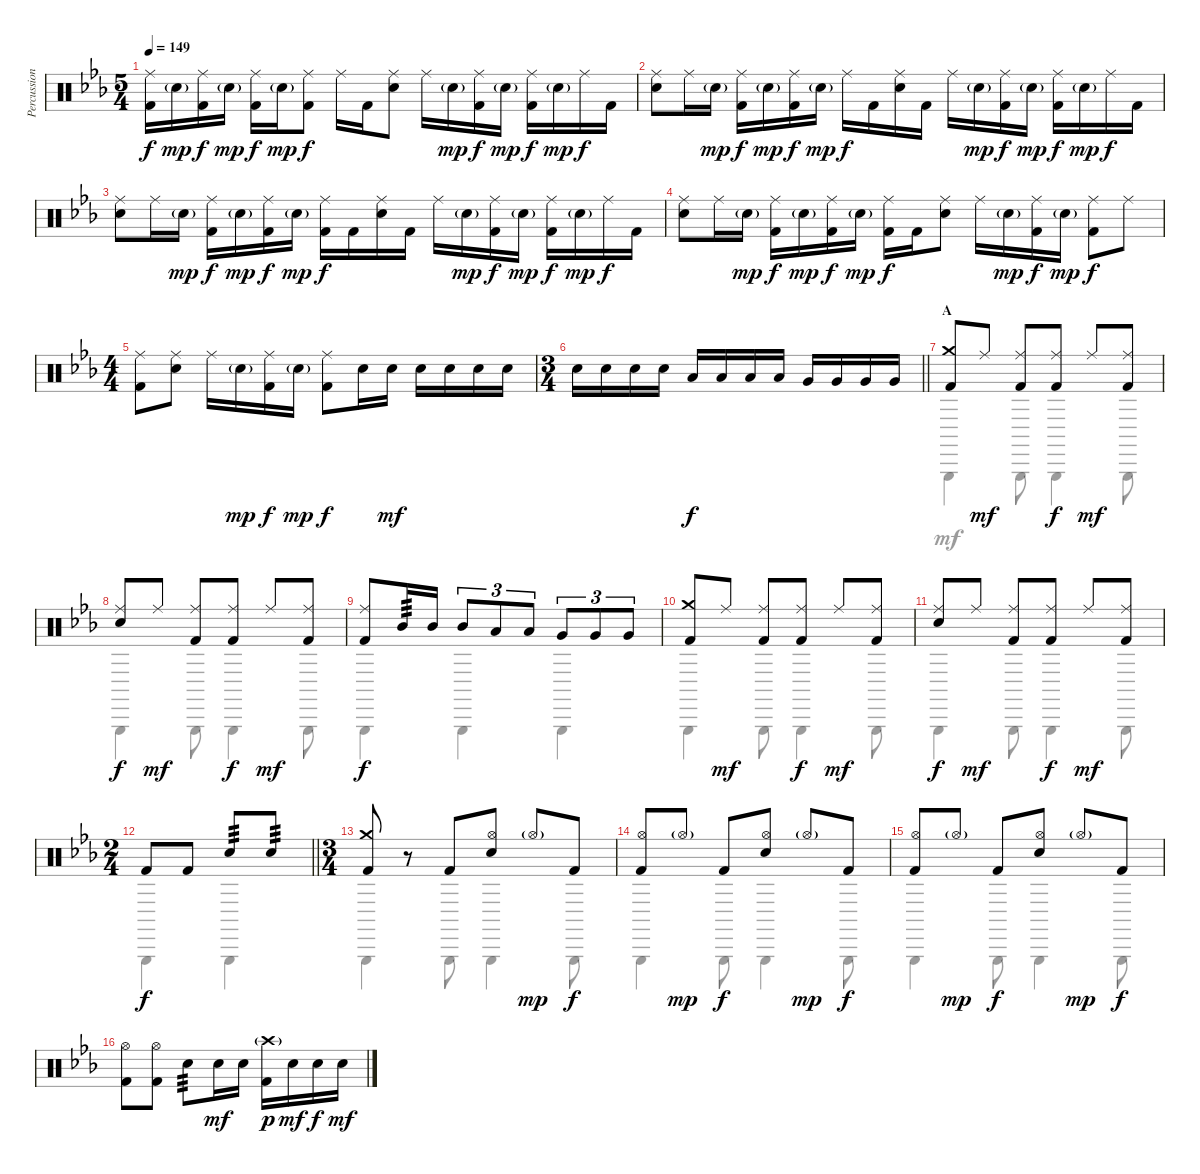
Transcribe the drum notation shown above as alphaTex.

\track ("Percussion" "Percussion") {instrument percussion}
\staff {score}
\articulation defaults
\voice
\ts (5 4)
\tempo 149
\clef neutral
\ks cminor
("Ride (middle)" "Kick (hit) 2").16{dy f} "Snare (hit) 2"{g}.16{dy mp} ("Ride (middle)" "Kick (hit) 2").16{dy f} "Snare (hit) 2"{g}.16{dy mp} ("Ride (middle)" "Kick (hit) 2").16{dy f} "Snare (hit) 2"{g}.16{dy mp} ("Ride (middle)" "Kick (hit) 2").8{dy f} "Ride (middle)".16 "Kick (hit) 2".16 ("Ride (middle)" "Snare (hit) 2").8 "Ride (middle)".16 "Snare (hit) 2"{g}.16{dy mp} ("Ride (middle)" "Kick (hit) 2").16{dy f} "Snare (hit) 2"{g}.16{dy mp} ("Ride (middle)" "Kick (hit) 2").16{dy f} "Snare (hit) 2"{g}.16{dy mp} "Ride (middle)".16{dy f} "Kick (hit) 2".16 |
("Ride (middle)" "Snare (hit) 2").8 "Ride (middle)".16 "Snare (hit) 2"{g}.16{dy mp} ("Ride (middle)" "Kick (hit) 2").16{dy f} "Snare (hit) 2"{g}.16{dy mp} ("Ride (middle)" "Kick (hit) 2").16{dy f} "Snare (hit) 2"{g}.16{dy mp} "Ride (middle)".16{dy f} "Kick (hit) 2".16 ("Ride (middle)" "Snare (hit) 2").16 "Kick (hit) 2".16 "Ride (middle)".16 "Snare (hit) 2"{g}.16{dy mp} ("Ride (middle)" "Kick (hit) 2").16{dy f} "Snare (hit) 2"{g}.16{dy mp} ("Ride (middle)" "Kick (hit) 2").16{dy f} "Snare (hit) 2"{g}.16{dy mp} "Ride (middle)".16{dy f} "Kick (hit) 2".16 |
("Ride (middle)" "Snare (hit) 2").8 "Ride (middle)".16 "Snare (hit) 2"{g}.16{dy mp} ("Ride (middle)" "Kick (hit) 2").16{dy f} "Snare (hit) 2"{g}.16{dy mp} ("Ride (middle)" "Kick (hit) 2").16{dy f} "Snare (hit) 2"{g}.16{dy mp} ("Ride (middle)" "Kick (hit) 2").16{dy f} "Kick (hit) 2".16 ("Ride (middle)" "Snare (hit) 2").16 "Kick (hit) 2".16 "Ride (middle)".16 "Snare (hit) 2"{g}.16{dy mp} ("Ride (middle)" "Kick (hit) 2").16{dy f} "Snare (hit) 2"{g}.16{dy mp} ("Ride (middle)" "Kick (hit) 2").16{dy f} "Snare (hit) 2"{g}.16{dy mp} "Ride (middle)".16{dy f} "Kick (hit) 2".16 |
("Ride (middle)" "Snare (hit) 2").8 "Ride (middle)".16 "Snare (hit) 2"{g}.16{dy mp} ("Ride (middle)" "Kick (hit) 2").16{dy f} "Snare (hit) 2"{g}.16{dy mp} ("Ride (middle)" "Kick (hit) 2").16{dy f} "Snare (hit) 2"{g}.16{dy mp} ("Ride (middle)" "Kick (hit) 2").16{dy f} "Kick (hit) 2".16 ("Ride (middle)" "Snare (hit) 2").8 "Ride (middle)".16 "Snare (hit) 2"{g}.16{dy mp} ("Ride (middle)" "Kick (hit) 2").16{dy f} "Snare (hit) 2"{g}.16{dy mp} ("Ride (middle)" "Kick (hit) 2").8{dy f} "Ride (middle)".8 |
\ts (4 4)
("Ride (middle)" "Kick (hit) 2").8 ("Ride (middle)" "Snare (hit) 2").8 "Ride (middle)".16 "Snare (hit) 2"{g}.16{dy mp} ("Ride (middle)" "Kick (hit) 2").16{dy f} "Snare (hit) 2"{g}.16{dy mp} ("Ride (middle)" "Kick (hit) 2").8{dy f} "Snare (hit) 2".16 "Snare (hit) 2".16{dy mf} "Snare (hit) 2".16 "Snare (hit) 2".16 "Snare (hit) 2".16 "Snare (hit) 2".16 |
\ts (3 4)
\barLineRight lightlight "Snare (hit) 2".16 "Snare (hit) 2".16 "Snare (hit) 2".16 "Snare (hit) 2".16 "Low Tom (hit)".16{dy f} "Low Tom (hit)".16 "Low Tom (hit)".16 "Low Tom (hit)".16 "Very Low Tom (hit)".16 "Very Low Tom (hit)".16 "Very Low Tom (hit)".16 "Very Low Tom (hit)".16
|
\section ("" "A")
("Crash medium (hit)" "Kick (hit) 2").8 "Ride (middle)".8{dy mf} ("Ride (middle)" "Kick (hit) 2").8 ("Ride (middle)" "Kick (hit) 2").8{dy f} "Ride (middle)".8{dy mf} ("Ride (middle)" "Kick (hit) 2").8 |
("Ride (middle)" "Snare (hit) 2").8{dy f} "Ride (middle)".8{dy mf} ("Ride (middle)" "Kick (hit) 2").8 ("Ride (middle)" "Kick (hit) 2").8{dy f} "Ride (middle)".8{dy mf} ("Ride (middle)" "Kick (hit) 2").8 |
("Ride (middle)" "Kick (hit) 2").8{dy f} "Mid Tom (hit)".16{tp 3} "Mid Tom (hit)".16 "Mid Tom (hit)".8{tu (3 2)} "Low Tom (hit)".8{tu (3 2)} "Low Tom (hit)".8{tu (3 2)} "Very Low Tom (hit)".8{tu (3 2)} "Very Low Tom (hit)".8{tu (3 2)} "Very Low Tom (hit)".8{tu (3 2)} |
("Crash medium (hit)" "Kick (hit) 2").8 "Ride (middle)".8{dy mf} ("Ride (middle)" "Kick (hit) 2").8 ("Ride (middle)" "Kick (hit) 2").8{dy f} "Ride (middle)".8{dy mf} ("Ride (middle)" "Kick (hit) 2").8 |
("Ride (middle)" "Snare (hit) 2").8{dy f} "Ride (middle)".8{dy mf} ("Ride (middle)" "Kick (hit) 2").8 ("Ride (middle)" "Kick (hit) 2").8{dy f} "Ride (middle)".8{dy mf} ("Ride (middle)" "Kick (hit) 2").8 |
\ts (2 4)
\barLineRight lightlight "Kick (hit) 2".8{dy f} "Kick (hit) 2".8 "Snare (hit) 2".8{tp 3} "Snare (hit) 2".8{tp 3}
|
\ts (3 4)
("Crash medium (hit)" "Kick (hit) 2").8 r.8 "Kick (hit) 2".8 ("Hi-Hat (open)" "Snare (hit) 2").8 "Hi-Hat (open)"{g}.8{dy mp} "Kick (hit) 2".8{dy f} |
("Hi-Hat (open)" "Kick (hit) 2").8 "Hi-Hat (open)"{g}.8{dy mp} "Kick (hit) 2".8{dy f} ("Hi-Hat (open)" "Snare (hit) 2").8 "Hi-Hat (open)"{g}.8{dy mp} "Kick (hit) 2".8{dy f} |
("Hi-Hat (open)" "Kick (hit) 2").8 "Hi-Hat (open)"{g}.8{dy mp} "Kick (hit) 2".8{dy f} ("Hi-Hat (open)" "Snare (hit) 2").8 "Hi-Hat (open)"{g}.8{dy mp} "Kick (hit) 2".8{dy f} |
("Hi-Hat (open)" "Kick (hit) 2").8 ("Hi-Hat (open)" "Kick (hit) 2").8 "Snare (hit) 2".8{tp 3} "Snare (hit) 2".16{dy mf} "Snare (hit) 2".16 ("Crash high (hit)"{g} "Kick (hit) 2").16{dy p} "Snare (hit) 2".16{dy mf} "Snare (hit) 2".16{dy f} "Snare (hit) 2".16{dy mf}
\voice
\clef neutral
\ottava regular
\simile none
\ks cminor
|
|
|
|
|
\barLineRight lightlight
|
"Triangle (hit)".4 "Triangle (hit)".8 "Triangle (hit)".4 "Triangle (hit)".8 |
"Triangle (hit)".4 "Triangle (hit)".8 "Triangle (hit)".4 "Triangle (hit)".8 |
"Triangle (hit)".4 "Triangle (hit)".4 "Triangle (hit)".4 |
"Triangle (hit)".4 "Triangle (hit)".8 "Triangle (hit)".4 "Triangle (hit)".8 |
"Triangle (hit)".4 "Triangle (hit)".8 "Triangle (hit)".4 "Triangle (hit)".8 |
\barLineRight lightlight "Triangle (hit)".4 "Triangle (hit)".4
|
"Triangle (hit)".4 "Triangle (hit)".8 "Triangle (hit)".4 "Triangle (hit)".8 |
"Triangle (hit)".4 "Triangle (hit)".8 "Triangle (hit)".4 "Triangle (hit)".8 |
"Triangle (hit)".4 "Triangle (hit)".8 "Triangle (hit)".4 "Triangle (hit)".8 |
